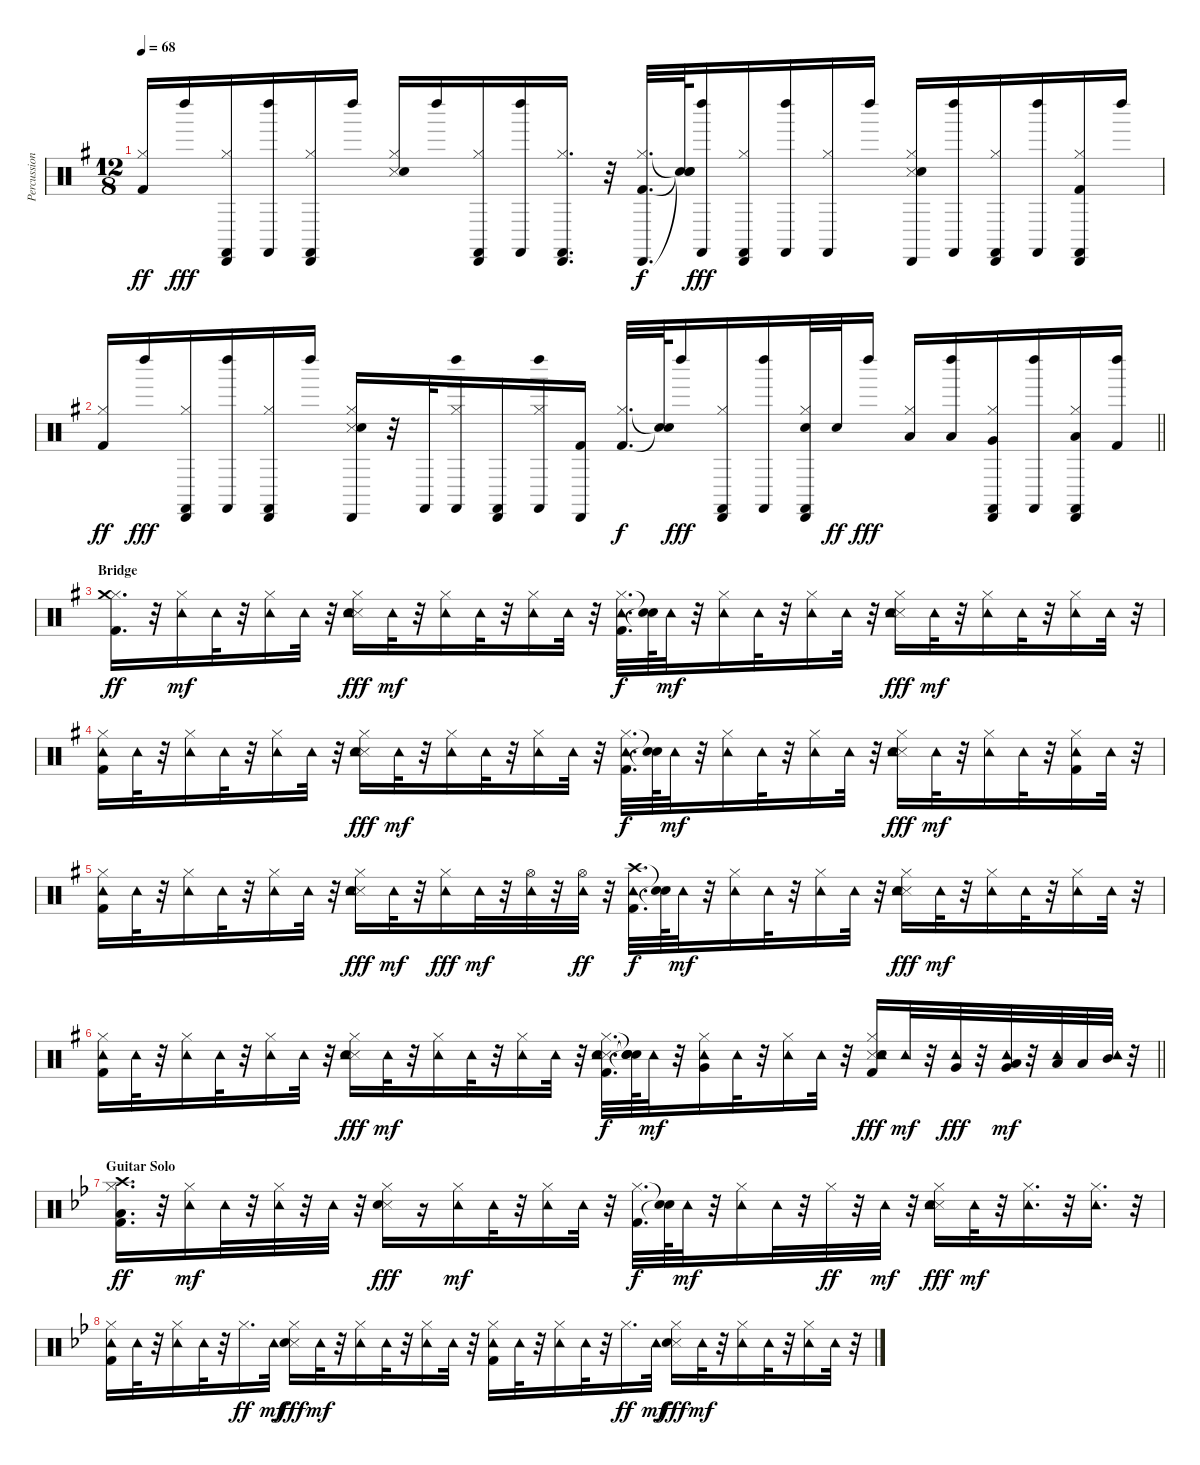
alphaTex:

\track ("Percussion" "Percussion") {instrument percussion}
\staff {score}
\articulation defaults
\ts (12 8)
\tempo 68
\clef neutral
\ks g
("Kick (hit) 2" "Hi-Hat (closed)").16{dy ff} "Left Maraca (hit)".16{dy fff} ("Hi-Hat (closed)" "Cabasa (hit)" "Castanets (hit)").16 ("Left Maraca (hit)" "Castanets (hit)").16 ("Hi-Hat (closed)" "Cabasa (hit)" "Castanets (hit)").16 "Left Maraca (hit)".16 ("Snare (side stick) 3" "Hi-Hat (closed)" "Snare (hit) 2").16 "Left Maraca (hit)".16 ("Hi-Hat (closed)" "Cabasa (hit)" "Castanets (hit)").16 ("Left Maraca (hit)" "Castanets (hit)").16 ("Hi-Hat (closed)" "Cabasa (hit)" "Castanets (hit)").16{d} r.32 ("Kick (hit) 2" "Hi-Hat (closed)" "Cabasa (hit)").32{d dy f} ("Snare (hit)"{t} "Snare (hit)"{t} "Snare (hit)"{t}).64 ("Castanets (hit)" "Left Maraca (hit)").16{dy fff} ("Hi-Hat (closed)" "Castanets (hit)" "Cabasa (hit)").16 ("Left Maraca (hit)" "Castanets (hit)").16 ("Hi-Hat (closed)" "Castanets (hit)").16 "Left Maraca (hit)".16 ("Snare (side stick) 3" "Hi-Hat (closed)" "Cabasa (hit)" "Snare (hit) 2").16 ("Castanets (hit)" "Left Maraca (hit)").16 ("Hi-Hat (closed)" "Cabasa (hit)" "Castanets (hit)").16 ("Left Maraca (hit)" "Castanets (hit)").16 ("Kick (hit) 2" "Hi-Hat (closed)" "Cabasa (hit)" "Castanets (hit)").16 "Left Maraca (hit)".16 |
\barLineRight lightlight
("Kick (hit) 2" "Hi-Hat (closed)").16{dy ff} "Left Maraca (hit)".16{dy fff} ("Hi-Hat (closed)" "Cabasa (hit)" "Castanets (hit)").16 ("Left Maraca (hit)" "Castanets (hit)").16 ("Hi-Hat (closed)" "Cabasa (hit)" "Castanets (hit)").16 "Left Maraca (hit)".16 ("Snare (side stick) 3" "Hi-Hat (closed)" "Cabasa (hit)" "Snare (hit) 2").16 r.32 "Castanets (hit)".32 ("Hi-Hat (closed)" "Left Maraca (hit)" "Castanets (hit)").16 ("Cabasa (hit)" "Castanets (hit)").16 ("Hi-Hat (closed)" "Left Maraca (hit)" "Castanets (hit)").16 ("Kick (hit) 2" "Cabasa (hit)").16 ("Hi-Hat (closed)" "Kick (hit) 2").32{d dy f} ("Snare (hit)"{t} "Snare (hit)"{t}).64 "Left Maraca (hit)".16{dy fff} ("Hi-Hat (closed)" "Cabasa (hit)" "Castanets (hit)").16 ("Left Maraca (hit)" "Castanets (hit)").16 ("Hi-Hat (closed)" "Snare (hit) 2" "Cabasa (hit)" "Castanets (hit)").32 "Snare (hit) 2".32{dy ff} "Left Maraca (hit)".16{dy fff} ("Hi-Hat (closed)" "Low Tom (hit)").16 ("Low Tom (hit)" "Left Maraca (hit)").16 ("Hi-Hat (closed)" "Very Low Tom (hit)" "Cabasa (hit)" "Castanets (hit)").16 ("Left Maraca (hit)" "Castanets (hit)").16 ("Hi-Hat (closed)" "Low Floor Tom (hit)" "Cabasa (hit)" "Castanets (hit)").16 ("Kick (hit) 2" "Left Maraca (hit)").16 |
\section ("" "Bridge")
("Kick (hit) 2" "Hi-Hat (closed)" "Crash medium (hit)").16{d dy ff} r.32 ("Hi-Hat (closed)" "Tambourine (hit)").16{dy mf} "Tambourine (hit)".32 r.32 ("Hi-Hat (closed)" "Tambourine (hit)").16 "Tambourine (hit)".32 r.32 ("Snare (side stick) 3" "Hi-Hat (closed)" "Tambourine (hit)" "Snare (hit) 2").16{dy fff} "Tambourine (hit)".32{dy mf} r.32 ("Hi-Hat (closed)" "Tambourine (hit)").16 "Tambourine (hit)".32 r.32 ("Hi-Hat (closed)" "Tambourine (hit)").16 "Tambourine (hit)".32 r.32 ("Kick (hit) 2" "Hi-Hat (closed)" "Tambourine (hit)").32{d dy f} ("Snare (hit)"{t} "Snare (hit)"{t}).64 "Tambourine (hit)".32{dy mf} r.32 ("Hi-Hat (closed)" "Tambourine (hit)").16 "Tambourine (hit)".32 r.32 ("Hi-Hat (closed)" "Tambourine (hit)").16 "Tambourine (hit)".32 r.32 ("Snare (side stick) 3" "Hi-Hat (closed)" "Tambourine (hit)" "Snare (hit) 2").16{dy fff} "Tambourine (hit)".32{dy mf} r.32 ("Hi-Hat (closed)" "Tambourine (hit)").16 "Tambourine (hit)".32 r.32 ("Hi-Hat (closed)" "Tambourine (hit)").16 "Tambourine (hit)".32 r.32 |
("Kick (hit) 2" "Hi-Hat (closed)" "Tambourine (hit)").16 "Tambourine (hit)".32 r.32 ("Hi-Hat (closed)" "Tambourine (hit)").16 "Tambourine (hit)".32 r.32 ("Hi-Hat (closed)" "Tambourine (hit)").16 "Tambourine (hit)".32 r.32 ("Snare (side stick) 3" "Hi-Hat (closed)" "Tambourine (hit)" "Snare (hit) 2").16{dy fff} "Tambourine (hit)".32{dy mf} r.32 ("Hi-Hat (closed)" "Tambourine (hit)").16 "Tambourine (hit)".32 r.32 ("Hi-Hat (closed)" "Tambourine (hit)").16 "Tambourine (hit)".32 r.32 ("Kick (hit) 2" "Hi-Hat (closed)" "Tambourine (hit)").32{d dy f} ("Snare (hit)"{t} "Snare (hit)"{t}).64 "Tambourine (hit)".32{dy mf} r.32 ("Hi-Hat (closed)" "Tambourine (hit)").16 "Tambourine (hit)".32 r.32 ("Hi-Hat (closed)" "Tambourine (hit)").16 "Tambourine (hit)".32 r.32 ("Snare (side stick) 3" "Hi-Hat (closed)" "Tambourine (hit)" "Snare (hit) 2").16{dy fff} "Tambourine (hit)".32{dy mf} r.32 ("Hi-Hat (closed)" "Tambourine (hit)").16 "Tambourine (hit)".32 r.32 ("Kick (hit) 2" "Hi-Hat (closed)" "Tambourine (hit)").16 "Tambourine (hit)".32 r.32 |
("Hi-Hat (closed)" "Kick (hit) 2" "Tambourine (hit)").16 "Tambourine (hit)".32 r.32 ("Hi-Hat (closed)" "Tambourine (hit)").16 "Tambourine (hit)".32 r.32 ("Hi-Hat (closed)" "Tambourine (hit)").16 "Tambourine (hit)".32 r.32 ("Snare (side stick) 3" "Hi-Hat (closed)" "Tambourine (hit)" "Snare (hit) 2").16{dy fff} "Tambourine (hit)".32{dy mf} r.32 ("Tambourine (hit)" "Hi-Hat (closed)").16{dy fff} "Tambourine (hit)".32{dy mf} r.32 ("Hi-Hat (open)" "Tambourine (hit)").32 r.32 ("Tambourine (hit)" "Hi-Hat (open)").32{dy ff} r.32 ("Crash high (hit)" "Kick (hit) 2" "Tambourine (hit)").32{d dy f} ("Snare (hit)"{t} "Snare (hit)"{t}).64 "Tambourine (hit)".32{dy mf} r.32 ("Hi-Hat (closed)" "Tambourine (hit)").16 "Tambourine (hit)".32 r.32 ("Hi-Hat (closed)" "Tambourine (hit)").16 "Tambourine (hit)".32 r.32 ("Snare (side stick) 3" "Hi-Hat (closed)" "Tambourine (hit)" "Snare (hit) 2").16{dy fff} "Tambourine (hit)".32{dy mf} r.32 ("Hi-Hat (closed)" "Tambourine (hit)").16 "Tambourine (hit)".32 r.32 ("Hi-Hat (closed)" "Tambourine (hit)").16 "Tambourine (hit)".32 r.32 |
\barLineRight lightlight
("Kick (hit) 2" "Hi-Hat (closed)" "Tambourine (hit)").16 "Tambourine (hit)".32 r.32 ("Hi-Hat (closed)" "Tambourine (hit)").16 "Tambourine (hit)".32 r.32 ("Hi-Hat (closed)" "Tambourine (hit)").16 "Tambourine (hit)".32 r.32 ("Hi-Hat (closed)" "Snare (side stick) 3" "Tambourine (hit)" "Snare (hit) 2").16{dy fff} "Tambourine (hit)".32{dy mf} r.32 ("Hi-Hat (closed)" "Tambourine (hit)").16 "Tambourine (hit)".32 r.32 ("Hi-Hat (closed)" "Tambourine (hit)").16 "Tambourine (hit)".32 r.32 ("Kick (hit) 2" "Hi-Hat (closed)" "Snare (side stick) 3" "Tambourine (hit)" "Snare (hit) 2").32{d dy f} ("Snare (hit)"{t} "Snare (hit)"{t} "Snare (hit)"{t} "Snare (hit)"{t}).64 "Tambourine (hit)".32{dy mf} r.32 ("Hi-Hat (closed)" "Very Low Tom (hit)" "Tambourine (hit)").16 "Tambourine (hit)".32 r.32 ("Hi-Hat (closed)" "Tambourine (hit)").16 "Tambourine (hit)".32 r.32 ("Hi-Hat (closed)" "Snare (side stick) 3" "Snare (hit) 2" "Tambourine (hit)" "Kick (hit) 2").16{dy fff} "Tambourine (hit)".32{dy mf} r.32 ("Tambourine (hit)" "Very Low Tom (hit)").32{dy fff} r.32 ("Low Floor Tom (hit)" "Very Low Tom (hit)" "Tambourine (hit)").32{dy mf} r.32 ("Low Floor Tom (hit)" "Tambourine (hit)").32 "Low Tom (hit)".32 ("Mid Tom (hit)" "Tambourine (hit)").32 r.32 |
\section ("" "Guitar Solo")
\ks gminor
("Low Tom (hit)" "Crash high (hit)" "Hi-Hat (closed)" "Kick (hit) 2").16{d dy ff} r.32 ("Hi-Hat (closed)" "Tambourine (hit)").16{dy mf} "Tambourine (hit)".32 r.32 ("Hi-Hat (closed)" "Tambourine (hit)").32 r.32 "Tambourine (hit)".32 r.32 ("Snare (side stick) 3" "Hi-Hat (closed)" "Snare (hit) 2").16{dy fff} r.16 ("Hi-Hat (closed)" "Tambourine (hit)").16{dy mf} "Tambourine (hit)".32 r.32 ("Hi-Hat (closed)" "Tambourine (hit)").16 "Tambourine (hit)".32 r.32 ("Kick (hit) 2" "Hi-Hat (closed)").32{d dy f} ("Snare (hit)"{t} "Snare (hit)"{t}).64 "Tambourine (hit)".32{dy mf} r.32 ("Hi-Hat (closed)" "Tambourine (hit)").16 "Tambourine (hit)".32 r.32 "Hi-Hat (closed)".32{dy ff} r.32 "Tambourine (hit)".32{dy mf} r.32 ("Snare (side stick) 3" "Hi-Hat (closed)" "Tambourine (hit)" "Snare (hit) 2").16{dy fff} "Tambourine (hit)".32{dy mf} r.32 ("Hi-Hat (closed)" "Tambourine (hit)").16{d} r.32 ("Hi-Hat (closed)" "Tambourine (hit)").16{d} r.32 |
("Kick (hit) 2" "Hi-Hat (closed)" "Tambourine (hit)").16 "Tambourine (hit)".32 r.32 ("Hi-Hat (closed)" "Tambourine (hit)").16 "Tambourine (hit)".32 r.32 "Hi-Hat (closed)".16{d dy ff} "Tambourine (hit)".32{dy mf} ("Snare (side stick) 3" "Hi-Hat (closed)" "Snare (hit) 2").16{dy fff} "Tambourine (hit)".32{dy mf} r.32 ("Hi-Hat (closed)" "Tambourine (hit)").16 "Tambourine (hit)".32 r.32 ("Hi-Hat (closed)" "Tambourine (hit)").16 "Tambourine (hit)".32 r.32 ("Kick (hit) 2" "Hi-Hat (closed)" "Tambourine (hit)").16 "Tambourine (hit)".32 r.32 ("Hi-Hat (closed)" "Tambourine (hit)").16 "Tambourine (hit)".32 r.32 "Hi-Hat (closed)".16{d dy ff} "Tambourine (hit)".32{dy mf} ("Snare (side stick) 3" "Hi-Hat (closed)" "Snare (hit) 2").16{dy fff} "Tambourine (hit)".32{dy mf} r.32 ("Hi-Hat (closed)" "Tambourine (hit)").16 "Tambourine (hit)".32 r.32 ("Hi-Hat (closed)" "Tambourine (hit)").16 "Tambourine (hit)".32 r.32
